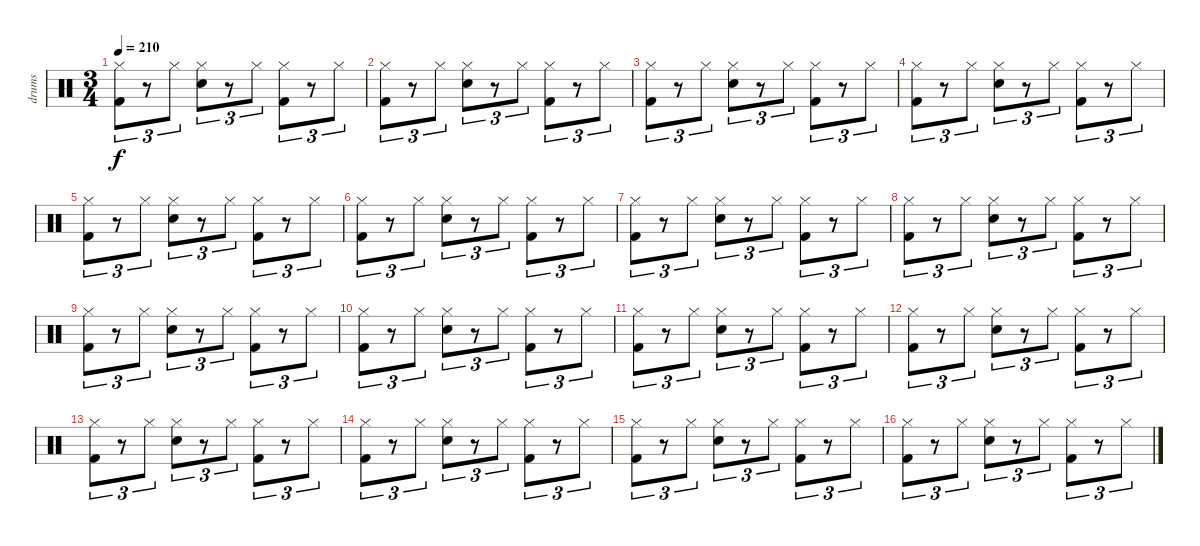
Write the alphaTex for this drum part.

\track ("drums" "drums") {instrument percussion}
\staff {score}
\articulation defaults
\ts (3 4)
\tempo 210
\clef neutral
\ks c
("Hi-Hat (closed)" "Kick (hit) 2").8{tu (3 2) dy f} r.8{tu (3 2)} "Hi-Hat (closed)".8{tu (3 2)} ("Hi-Hat (closed)" "Snare (hit) 2").8{tu (3 2)} r.8{tu (3 2)} "Hi-Hat (closed)".8{tu (3 2)} ("Hi-Hat (closed)" "Kick (hit) 2").8{tu (3 2)} r.8{tu (3 2)} "Hi-Hat (closed)".8{tu (3 2)} |
("Hi-Hat (closed)" "Kick (hit) 2").8{tu (3 2)} r.8{tu (3 2)} "Hi-Hat (closed)".8{tu (3 2)} ("Hi-Hat (closed)" "Snare (hit) 2").8{tu (3 2)} r.8{tu (3 2)} "Hi-Hat (closed)".8{tu (3 2)} ("Hi-Hat (closed)" "Kick (hit) 2").8{tu (3 2)} r.8{tu (3 2)} "Hi-Hat (closed)".8{tu (3 2)} |
("Hi-Hat (closed)" "Kick (hit) 2").8{tu (3 2)} r.8{tu (3 2)} "Hi-Hat (closed)".8{tu (3 2)} ("Hi-Hat (closed)" "Snare (hit) 2").8{tu (3 2)} r.8{tu (3 2)} "Hi-Hat (closed)".8{tu (3 2)} ("Hi-Hat (closed)" "Kick (hit) 2").8{tu (3 2)} r.8{tu (3 2)} "Hi-Hat (closed)".8{tu (3 2)} |
("Hi-Hat (closed)" "Kick (hit) 2").8{tu (3 2)} r.8{tu (3 2)} "Hi-Hat (closed)".8{tu (3 2)} ("Hi-Hat (closed)" "Snare (hit) 2").8{tu (3 2)} r.8{tu (3 2)} "Hi-Hat (closed)".8{tu (3 2)} ("Hi-Hat (closed)" "Kick (hit) 2").8{tu (3 2)} r.8{tu (3 2)} "Hi-Hat (closed)".8{tu (3 2)} |
("Hi-Hat (closed)" "Kick (hit) 2").8{tu (3 2)} r.8{tu (3 2)} "Hi-Hat (closed)".8{tu (3 2)} ("Hi-Hat (closed)" "Snare (hit) 2").8{tu (3 2)} r.8{tu (3 2)} "Hi-Hat (closed)".8{tu (3 2)} ("Hi-Hat (closed)" "Kick (hit) 2").8{tu (3 2)} r.8{tu (3 2)} "Hi-Hat (closed)".8{tu (3 2)} |
("Hi-Hat (closed)" "Kick (hit) 2").8{tu (3 2)} r.8{tu (3 2)} "Hi-Hat (closed)".8{tu (3 2)} ("Hi-Hat (closed)" "Snare (hit) 2").8{tu (3 2)} r.8{tu (3 2)} "Hi-Hat (closed)".8{tu (3 2)} ("Hi-Hat (closed)" "Kick (hit) 2").8{tu (3 2)} r.8{tu (3 2)} "Hi-Hat (closed)".8{tu (3 2)} |
("Hi-Hat (closed)" "Kick (hit) 2").8{tu (3 2)} r.8{tu (3 2)} "Hi-Hat (closed)".8{tu (3 2)} ("Hi-Hat (closed)" "Snare (hit) 2").8{tu (3 2)} r.8{tu (3 2)} "Hi-Hat (closed)".8{tu (3 2)} ("Hi-Hat (closed)" "Kick (hit) 2").8{tu (3 2)} r.8{tu (3 2)} "Hi-Hat (closed)".8{tu (3 2)} |
("Hi-Hat (closed)" "Kick (hit) 2").8{tu (3 2)} r.8{tu (3 2)} "Hi-Hat (closed)".8{tu (3 2)} ("Hi-Hat (closed)" "Snare (hit) 2").8{tu (3 2)} r.8{tu (3 2)} "Hi-Hat (closed)".8{tu (3 2)} ("Hi-Hat (closed)" "Kick (hit) 2").8{tu (3 2)} r.8{tu (3 2)} "Hi-Hat (closed)".8{tu (3 2)} |
("Hi-Hat (closed)" "Kick (hit) 2").8{tu (3 2)} r.8{tu (3 2)} "Hi-Hat (closed)".8{tu (3 2)} ("Hi-Hat (closed)" "Snare (hit) 2").8{tu (3 2)} r.8{tu (3 2)} "Hi-Hat (closed)".8{tu (3 2)} ("Hi-Hat (closed)" "Kick (hit) 2").8{tu (3 2)} r.8{tu (3 2)} "Hi-Hat (closed)".8{tu (3 2)} |
("Hi-Hat (closed)" "Kick (hit) 2").8{tu (3 2)} r.8{tu (3 2)} "Hi-Hat (closed)".8{tu (3 2)} ("Hi-Hat (closed)" "Snare (hit) 2").8{tu (3 2)} r.8{tu (3 2)} "Hi-Hat (closed)".8{tu (3 2)} ("Hi-Hat (closed)" "Kick (hit) 2").8{tu (3 2)} r.8{tu (3 2)} "Hi-Hat (closed)".8{tu (3 2)} |
("Hi-Hat (closed)" "Kick (hit) 2").8{tu (3 2)} r.8{tu (3 2)} "Hi-Hat (closed)".8{tu (3 2)} ("Hi-Hat (closed)" "Snare (hit) 2").8{tu (3 2)} r.8{tu (3 2)} "Hi-Hat (closed)".8{tu (3 2)} ("Hi-Hat (closed)" "Kick (hit) 2").8{tu (3 2)} r.8{tu (3 2)} "Hi-Hat (closed)".8{tu (3 2)} |
("Hi-Hat (closed)" "Kick (hit) 2").8{tu (3 2)} r.8{tu (3 2)} "Hi-Hat (closed)".8{tu (3 2)} ("Hi-Hat (closed)" "Snare (hit) 2").8{tu (3 2)} r.8{tu (3 2)} "Hi-Hat (closed)".8{tu (3 2)} ("Hi-Hat (closed)" "Kick (hit) 2").8{tu (3 2)} r.8{tu (3 2)} "Hi-Hat (closed)".8{tu (3 2)} |
("Hi-Hat (closed)" "Kick (hit) 2").8{tu (3 2)} r.8{tu (3 2)} "Hi-Hat (closed)".8{tu (3 2)} ("Hi-Hat (closed)" "Snare (hit) 2").8{tu (3 2)} r.8{tu (3 2)} "Hi-Hat (closed)".8{tu (3 2)} ("Hi-Hat (closed)" "Kick (hit) 2").8{tu (3 2)} r.8{tu (3 2)} "Hi-Hat (closed)".8{tu (3 2)} |
("Hi-Hat (closed)" "Kick (hit) 2").8{tu (3 2)} r.8{tu (3 2)} "Hi-Hat (closed)".8{tu (3 2)} ("Hi-Hat (closed)" "Snare (hit) 2").8{tu (3 2)} r.8{tu (3 2)} "Hi-Hat (closed)".8{tu (3 2)} ("Hi-Hat (closed)" "Kick (hit) 2").8{tu (3 2)} r.8{tu (3 2)} "Hi-Hat (closed)".8{tu (3 2)} |
("Hi-Hat (closed)" "Kick (hit) 2").8{tu (3 2)} r.8{tu (3 2)} "Hi-Hat (closed)".8{tu (3 2)} ("Hi-Hat (closed)" "Snare (hit) 2").8{tu (3 2)} r.8{tu (3 2)} "Hi-Hat (closed)".8{tu (3 2)} ("Hi-Hat (closed)" "Kick (hit) 2").8{tu (3 2)} r.8{tu (3 2)} "Hi-Hat (closed)".8{tu (3 2)} |
("Hi-Hat (closed)" "Kick (hit) 2").8{tu (3 2)} r.8{tu (3 2)} "Hi-Hat (closed)".8{tu (3 2)} ("Hi-Hat (closed)" "Snare (hit) 2").8{tu (3 2)} r.8{tu (3 2)} "Hi-Hat (closed)".8{tu (3 2)} ("Hi-Hat (closed)" "Kick (hit) 2").8{tu (3 2)} r.8{tu (3 2)} "Hi-Hat (closed)".8{tu (3 2)}
